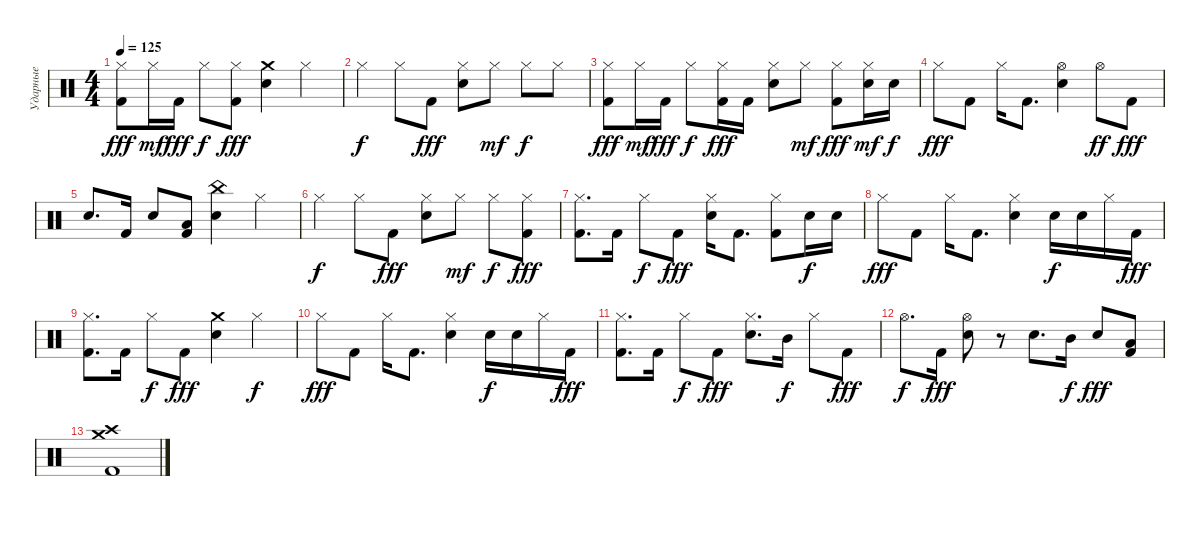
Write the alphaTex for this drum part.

\track ("Ударные" "Ударные") {instrument percussion}
\staff {score}
\articulation defaults
\ts (4 4)
\tempo 125
\clef neutral
\ks c
("Hi-Hat (closed)" "Kick (hit) 2").8{dy fff} "Hi-Hat (closed)".16{dy mf} "Kick (hit) 2".16{dy fff} "Hi-Hat (closed)".8{dy f} ("Hi-Hat (closed)" "Kick (hit) 2").8{dy fff} ("Crash medium (hit)" "Electric Snare (hit)").4 "Hi-Hat (closed)".4 |
"Hi-Hat (closed)".4{dy f} "Hi-Hat (closed)".8 "Kick (hit) 2".8{dy fff} ("Hi-Hat (closed)" "Electric Snare (hit)").8 "Hi-Hat (closed)".8{dy mf} "Hi-Hat (closed)".8{dy f} "Hi-Hat (closed)".8 |
("Hi-Hat (closed)" "Kick (hit) 2").8{dy fff} "Hi-Hat (closed)".16{dy mf} "Kick (hit) 2".16{dy fff} "Hi-Hat (closed)".8{dy f} ("Hi-Hat (closed)" "Kick (hit) 2").16{dy fff} "Kick (hit) 2".16 ("Hi-Hat (closed)" "Electric Snare (hit)").8 "Hi-Hat (closed)".8{dy mf} ("Hi-Hat (closed)" "Kick (hit) 2").8{dy fff} ("Hi-Hat (closed)" "Electric Snare (hit)").16{dy mf} "Electric Snare (hit)".16{dy f} |
"Hi-Hat (closed)".8{dy fff} "Kick (hit) 2".8 "Hi-Hat (closed)".16 "Kick (hit) 2".8{d} ("Hi-Hat (open)" "Electric Snare (hit)").4 "Hi-Hat (open)".8{dy ff} "Kick (hit) 2".8{dy fff} |
"Electric Snare (hit)".8{d} "Kick (hit) 2".16 "Electric Snare (hit)".8 ("Low Floor Tom (hit)" "Kick (hit) 2").8 ("China (hit)" "Electric Snare (hit)").4 "Hi-Hat (closed)".4 |
"Hi-Hat (closed)".4{dy f} "Hi-Hat (closed)".8 "Kick (hit) 2".8{dy fff} ("Hi-Hat (closed)" "Electric Snare (hit)").8 "Hi-Hat (closed)".8{dy mf} "Hi-Hat (closed)".8{dy f} ("Hi-Hat (closed)" "Kick (hit) 2").8{dy fff} |
("Hi-Hat (closed)" "Kick (hit) 2").8{d} "Kick (hit) 2".16 "Hi-Hat (closed)".8{dy f} "Kick (hit) 2".8{dy fff} ("Hi-Hat (closed)" "Electric Snare (hit)").16 "Kick (hit) 2".8{d} ("Hi-Hat (closed)" "Kick (hit) 2").8 "Electric Snare (hit)".16{dy f} "Electric Snare (hit)".16 |
"Hi-Hat (closed)".8{dy fff} "Kick (hit) 2".8 "Hi-Hat (closed)".16 "Kick (hit) 2".8{d} ("Hi-Hat (closed)" "Electric Snare (hit)").4 "Electric Snare (hit)".16{dy f} "Electric Snare (hit)".16 "Hi-Hat (closed)".16 "Kick (hit) 2".16{dy fff} |
("Hi-Hat (closed)" "Kick (hit) 2").8{d} "Kick (hit) 2".16 "Hi-Hat (closed)".8{dy f} "Kick (hit) 2".8{dy fff} ("Crash medium (hit)" "Electric Snare (hit)").4 "Hi-Hat (closed)".4{dy f} |
"Hi-Hat (closed)".8{dy fff} "Kick (hit) 2".8 "Hi-Hat (closed)".16 "Kick (hit) 2".8{d} ("Hi-Hat (closed)" "Electric Snare (hit)").4 "Electric Snare (hit)".16{dy f} "Electric Snare (hit)".16 "Hi-Hat (closed)".16 "Kick (hit) 2".16{dy fff} |
("Hi-Hat (closed)" "Kick (hit) 2").8{d} "Kick (hit) 2".16 "Hi-Hat (closed)".8{dy f} "Kick (hit) 2".8{dy fff} ("Hi-Hat (closed)" "Electric Snare (hit)").8{d} "Mid Tom (hit)".16{dy f} "Hi-Hat (closed)".8 "Kick (hit) 2".8{dy fff} |
"Hi-Hat (open)".8{d dy f} "Kick (hit) 2".16{dy fff} ("Hi-Hat (open)" "Electric Snare (hit)").8 r.8 "Electric Snare (hit)".8{d} "Mid Tom (hit)".16{dy f} "Electric Snare (hit)".8{dy fff} ("Low Floor Tom (hit)" "Kick (hit) 2").8 |
("Crash high (hit)" "Crash medium (hit)" "Kick (hit) 2").1
